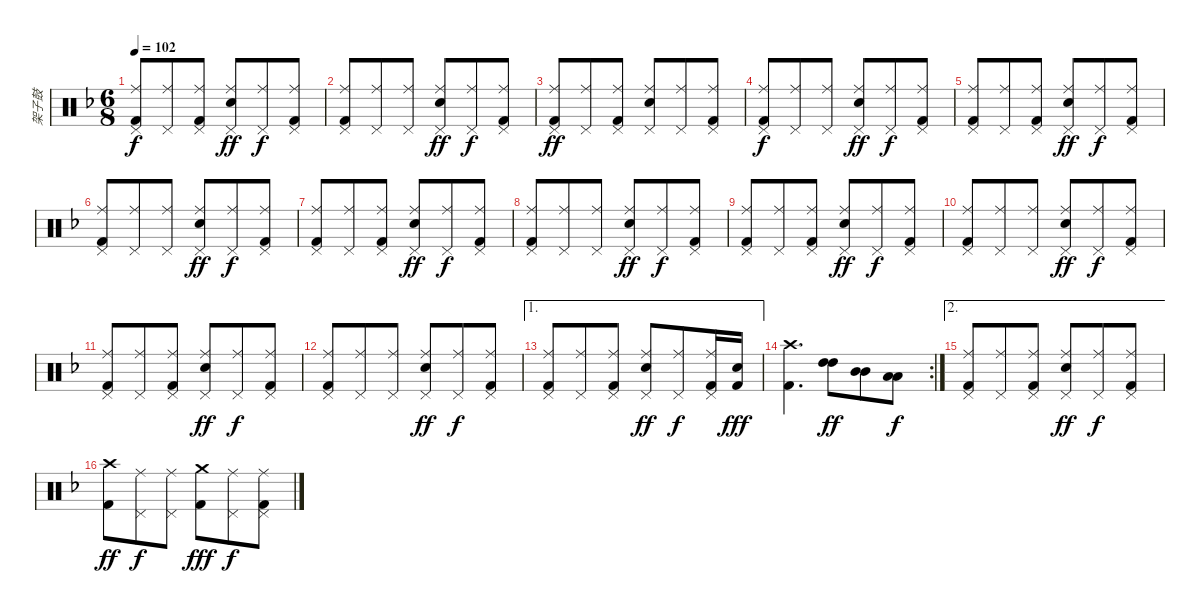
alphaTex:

\track ("架子鼓" "架子鼓") {instrument percussion}
\staff {score}
\articulation defaults
\ts (6 8)
\tempo 102
\clef neutral
\ks f
("Ride (middle)" "Pedal Hi-Hat (hit)" "Kick (hit) 2").8{dy f} ("Ride (middle)" "Pedal Hi-Hat (hit)").8 ("Ride (middle)" "Pedal Hi-Hat (hit)" "Kick (hit) 2").8 ("Ride (middle)" "Electric Snare (hit)" "Pedal Hi-Hat (hit)").8{dy ff} ("Ride (middle)" "Pedal Hi-Hat (hit)").8{dy f} ("Ride (middle)" "Pedal Hi-Hat (hit)" "Kick (hit) 2").8 |
("Ride (middle)" "Pedal Hi-Hat (hit)" "Kick (hit) 2").8 ("Ride (middle)" "Pedal Hi-Hat (hit)").8 ("Ride (middle)" "Pedal Hi-Hat (hit)").8 ("Ride (middle)" "Electric Snare (hit)" "Pedal Hi-Hat (hit)").8{dy ff} ("Ride (middle)" "Pedal Hi-Hat (hit)").8{dy f} ("Ride (middle)" "Pedal Hi-Hat (hit)" "Kick (hit) 2").8 |
("Ride (middle)" "Pedal Hi-Hat (hit)" "Kick (hit) 2").8{dy ff} ("Ride (middle)" "Pedal Hi-Hat (hit)").8 ("Ride (middle)" "Pedal Hi-Hat (hit)" "Kick (hit) 2").8 ("Ride (middle)" "Electric Snare (hit)" "Pedal Hi-Hat (hit)").8 ("Ride (middle)" "Pedal Hi-Hat (hit)").8 ("Ride (middle)" "Pedal Hi-Hat (hit)" "Kick (hit) 2").8 |
("Ride (middle)" "Pedal Hi-Hat (hit)" "Kick (hit) 2").8{dy f} ("Ride (middle)" "Pedal Hi-Hat (hit)").8 ("Ride (middle)" "Pedal Hi-Hat (hit)").8 ("Ride (middle)" "Electric Snare (hit)" "Pedal Hi-Hat (hit)").8{dy ff} ("Ride (middle)" "Pedal Hi-Hat (hit)").8{dy f} ("Ride (middle)" "Pedal Hi-Hat (hit)" "Kick (hit) 2").8 |
("Ride (middle)" "Pedal Hi-Hat (hit)" "Kick (hit) 2").8 ("Ride (middle)" "Pedal Hi-Hat (hit)").8 ("Ride (middle)" "Pedal Hi-Hat (hit)" "Kick (hit) 2").8 ("Ride (middle)" "Electric Snare (hit)" "Pedal Hi-Hat (hit)").8{dy ff} ("Ride (middle)" "Pedal Hi-Hat (hit)").8{dy f} ("Ride (middle)" "Pedal Hi-Hat (hit)" "Kick (hit) 2").8 |
("Ride (middle)" "Pedal Hi-Hat (hit)" "Kick (hit) 2").8 ("Ride (middle)" "Pedal Hi-Hat (hit)").8 ("Ride (middle)" "Pedal Hi-Hat (hit)").8 ("Ride (middle)" "Electric Snare (hit)" "Pedal Hi-Hat (hit)").8{dy ff} ("Ride (middle)" "Pedal Hi-Hat (hit)").8{dy f} ("Ride (middle)" "Pedal Hi-Hat (hit)" "Kick (hit) 2").8 |
("Ride (middle)" "Pedal Hi-Hat (hit)" "Kick (hit) 2").8 ("Ride (middle)" "Pedal Hi-Hat (hit)").8 ("Ride (middle)" "Pedal Hi-Hat (hit)" "Kick (hit) 2").8 ("Ride (middle)" "Electric Snare (hit)" "Pedal Hi-Hat (hit)").8{dy ff} ("Ride (middle)" "Pedal Hi-Hat (hit)").8{dy f} ("Ride (middle)" "Pedal Hi-Hat (hit)" "Kick (hit) 2").8 |
("Ride (middle)" "Pedal Hi-Hat (hit)" "Kick (hit) 2").8 ("Ride (middle)" "Pedal Hi-Hat (hit)").8 ("Ride (middle)" "Pedal Hi-Hat (hit)").8 ("Ride (middle)" "Electric Snare (hit)" "Pedal Hi-Hat (hit)").8{dy ff} ("Ride (middle)" "Pedal Hi-Hat (hit)").8{dy f} ("Ride (middle)" "Pedal Hi-Hat (hit)" "Kick (hit) 2").8 |
("Ride (middle)" "Pedal Hi-Hat (hit)" "Kick (hit) 2").8 ("Ride (middle)" "Pedal Hi-Hat (hit)").8 ("Ride (middle)" "Pedal Hi-Hat (hit)" "Kick (hit) 2").8 ("Ride (middle)" "Electric Snare (hit)" "Pedal Hi-Hat (hit)").8{dy ff} ("Ride (middle)" "Pedal Hi-Hat (hit)").8{dy f} ("Ride (middle)" "Pedal Hi-Hat (hit)" "Kick (hit) 2").8 |
("Ride (middle)" "Pedal Hi-Hat (hit)" "Kick (hit) 2").8 ("Ride (middle)" "Pedal Hi-Hat (hit)").8 ("Ride (middle)" "Pedal Hi-Hat (hit)").8 ("Ride (middle)" "Electric Snare (hit)" "Pedal Hi-Hat (hit)").8{dy ff} ("Ride (middle)" "Pedal Hi-Hat (hit)").8{dy f} ("Ride (middle)" "Pedal Hi-Hat (hit)" "Kick (hit) 2").8 |
("Ride (middle)" "Pedal Hi-Hat (hit)" "Kick (hit) 2").8 ("Ride (middle)" "Pedal Hi-Hat (hit)").8 ("Ride (middle)" "Pedal Hi-Hat (hit)" "Kick (hit) 2").8 ("Ride (middle)" "Electric Snare (hit)" "Pedal Hi-Hat (hit)").8{dy ff} ("Ride (middle)" "Pedal Hi-Hat (hit)").8{dy f} ("Ride (middle)" "Pedal Hi-Hat (hit)" "Kick (hit) 2").8 |
("Ride (middle)" "Pedal Hi-Hat (hit)" "Kick (hit) 2").8 ("Ride (middle)" "Pedal Hi-Hat (hit)").8 ("Ride (middle)" "Pedal Hi-Hat (hit)").8 ("Ride (middle)" "Electric Snare (hit)" "Pedal Hi-Hat (hit)").8{dy ff} ("Ride (middle)" "Pedal Hi-Hat (hit)").8{dy f} ("Ride (middle)" "Pedal Hi-Hat (hit)" "Kick (hit) 2").8 |
\ae 1
("Ride (middle)" "Pedal Hi-Hat (hit)" "Kick (hit) 2").8 ("Ride (middle)" "Pedal Hi-Hat (hit)").8 ("Ride (middle)" "Pedal Hi-Hat (hit)" "Kick (hit) 2").8 ("Ride (middle)" "Electric Snare (hit)" "Pedal Hi-Hat (hit)").8{dy ff} ("Ride (middle)" "Pedal Hi-Hat (hit)").8{dy f} ("Ride (middle)" "Pedal Hi-Hat (hit)" "Kick (hit) 2").16 ("Electric Snare (hit)" "Kick (hit) 2").16{dy fff} |
\rc 2
("Crash high (hit)" "Kick (hit) 2").4{d} ("High Tom (hit)" "High Tom (hit)").8{dy ff} ("Mid Tom (hit)" "Mid Tom (hit)").8 ("Low Tom (hit)" "Low Tom (hit)").8{dy f} |
\ae 2
("Ride (middle)" "Pedal Hi-Hat (hit)" "Kick (hit) 2").8 ("Ride (middle)" "Pedal Hi-Hat (hit)").8 ("Ride (middle)" "Pedal Hi-Hat (hit)" "Kick (hit) 2").8 ("Ride (middle)" "Electric Snare (hit)" "Pedal Hi-Hat (hit)").8{dy ff} ("Ride (middle)" "Pedal Hi-Hat (hit)").8{dy f} ("Ride (middle)" "Pedal Hi-Hat (hit)" "Kick (hit) 2").8 |
("Crash high (hit)" "Kick (hit) 2").8{dy ff} ("Ride (middle)" "Pedal Hi-Hat (hit)").8{dy f} ("Ride (middle)" "Pedal Hi-Hat (hit)").8 ("Crash medium (hit)" "Kick (hit) 2").8{dy fff} ("Ride (middle)" "Pedal Hi-Hat (hit)").8{dy f} ("Ride (middle)" "Pedal Hi-Hat (hit)" "Kick (hit) 2").8
